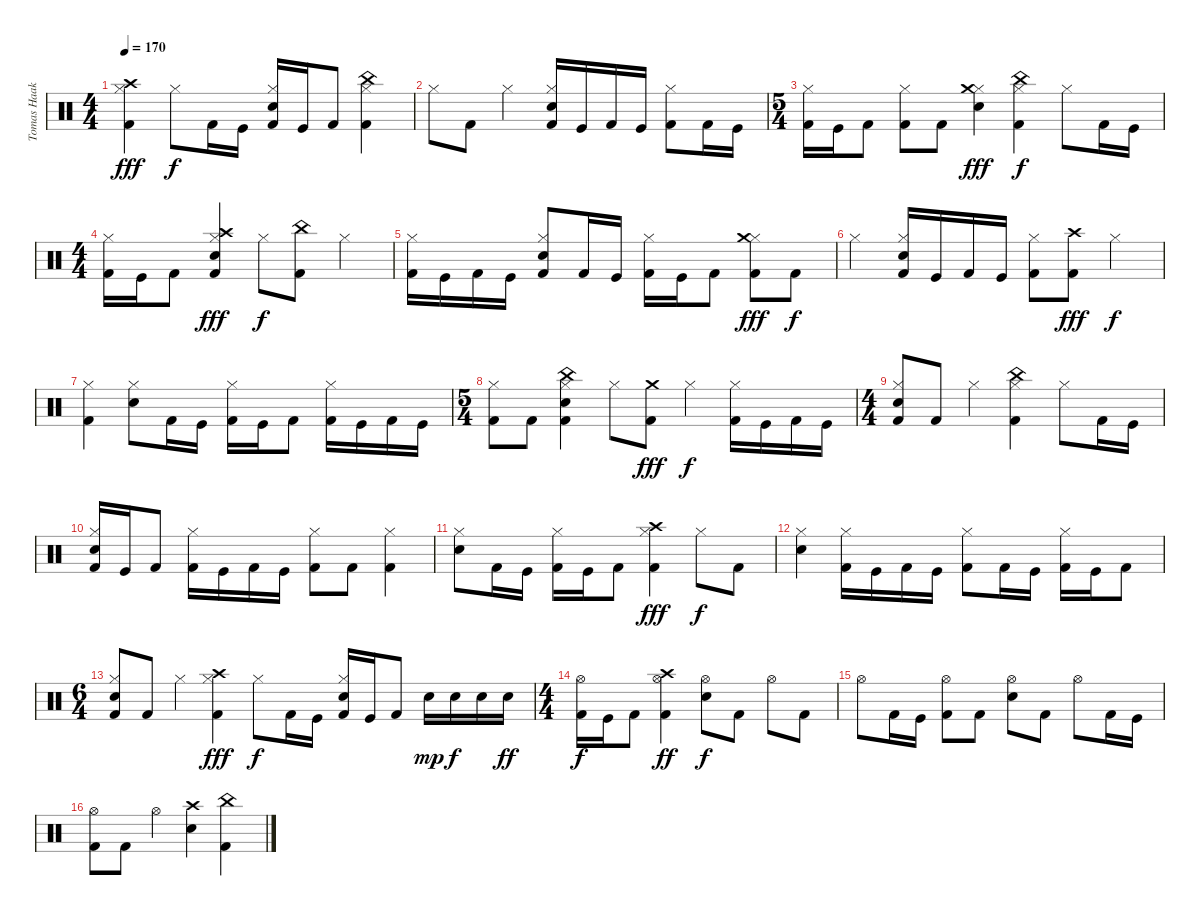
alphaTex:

\track ("Tomas Haake" "Tomas Haak") {instrument percussion}
\staff {score}
\articulation defaults
\ts (4 4)
\tempo 170
\clef neutral
\ks c
("Kick (hit) 2" "Hi-Hat (closed)" "Crash high (hit)").4{dy fff} "Hi-Hat (closed)".8{dy f} "Kick (hit) 2".16 "Kick (hit)".16 ("Kick (hit) 2" "Snare (hit) 2" "Hi-Hat (closed)").16 "Kick (hit)".16 "Kick (hit) 2".8 ("Kick (hit) 2" "Hi-Hat (closed)" "China (hit)").4 |
"Hi-Hat (closed)".8 "Kick (hit) 2".8 "Hi-Hat (closed)".4 ("Kick (hit) 2" "Snare (hit) 2" "Hi-Hat (closed)").16 "Kick (hit)".16 "Kick (hit) 2".16 "Kick (hit)".16 ("Kick (hit) 2" "Hi-Hat (closed)").8 "Kick (hit) 2".16 "Kick (hit)".16 |
\ts (5 4)
("Kick (hit) 2" "Hi-Hat (closed)").16 "Kick (hit)".16 "Kick (hit) 2".8 ("Kick (hit) 2" "Hi-Hat (closed)").8 "Kick (hit) 2".8 ("Snare (hit) 2" "Hi-Hat (closed)" "Crash medium (hit)").4{dy fff} ("Kick (hit) 2" "Hi-Hat (closed)" "China (hit)").4{dy f} "Hi-Hat (closed)".8 "Kick (hit) 2".16 "Kick (hit)".16 |
\ts (4 4)
("Kick (hit) 2" "Hi-Hat (closed)").16 "Kick (hit)".16 "Kick (hit) 2".8 ("Kick (hit) 2" "Snare (hit) 2" "Hi-Hat (closed)" "Crash high (hit)").4{dy fff} "Hi-Hat (closed)".8{dy f} ("Kick (hit) 2" "China (hit)").8 "Hi-Hat (closed)".4 |
("Kick (hit) 2" "Hi-Hat (closed)").16 "Kick (hit)".16 "Kick (hit) 2".16 "Kick (hit)".16 ("Kick (hit) 2" "Snare (hit) 2" "Hi-Hat (closed)").8 "Kick (hit) 2".16 "Kick (hit)".16 ("Kick (hit) 2" "Hi-Hat (closed)").16 "Kick (hit)".16 "Kick (hit) 2".8 ("Kick (hit) 2" "Hi-Hat (closed)" "Crash medium (hit)").8{dy fff} "Kick (hit) 2".8{dy f} |
"Hi-Hat (closed)".4 ("Kick (hit) 2" "Snare (hit) 2" "Hi-Hat (closed)").16 "Kick (hit)".16 "Kick (hit) 2".16 "Kick (hit)".16 ("Kick (hit) 2" "Hi-Hat (closed)").8 ("Kick (hit) 2" "Crash high (hit)").8{dy fff} "Hi-Hat (closed)".4{dy f} |
("Kick (hit) 2" "Hi-Hat (closed)").4 ("Snare (hit) 2" "Hi-Hat (closed)").8 "Kick (hit) 2".16 "Kick (hit)".16 ("Kick (hit) 2" "Hi-Hat (closed)").16 "Kick (hit)".16 "Kick (hit) 2".8 ("Kick (hit) 2" "Hi-Hat (closed)").16 "Kick (hit)".16 "Kick (hit) 2".16 "Kick (hit)".16 |
\ts (5 4)
("Kick (hit) 2" "Hi-Hat (closed)").8 "Kick (hit) 2".8 ("Kick (hit) 2" "Snare (hit) 2" "Hi-Hat (closed)" "China (hit)").4 "Hi-Hat (closed)".8 ("Kick (hit) 2" "Crash medium (hit)").8{dy fff} "Hi-Hat (closed)".4{dy f} ("Kick (hit) 2" "Hi-Hat (closed)").16 "Kick (hit)".16 "Kick (hit) 2".16 "Kick (hit)".16 |
\ts (4 4)
("Kick (hit) 2" "Snare (hit) 2" "Hi-Hat (closed)").8 "Kick (hit) 2".8 "Hi-Hat (closed)".4 ("Kick (hit) 2" "Hi-Hat (closed)" "China (hit)").4 "Hi-Hat (closed)".8 "Kick (hit) 2".16 "Kick (hit)".16 |
("Kick (hit) 2" "Snare (hit) 2" "Hi-Hat (closed)").16 "Kick (hit)".16 "Kick (hit) 2".8 ("Kick (hit) 2" "Hi-Hat (closed)").16 "Kick (hit)".16 "Kick (hit) 2".16 "Kick (hit)".16 ("Kick (hit) 2" "Hi-Hat (closed)").8 "Kick (hit) 2".8 ("Kick (hit) 2" "Hi-Hat (closed)").4 |
("Snare (hit) 2" "Hi-Hat (closed)").8 "Kick (hit) 2".16 "Kick (hit)".16 ("Kick (hit) 2" "Hi-Hat (closed)").16 "Kick (hit)".16 "Kick (hit) 2".8 ("Kick (hit) 2" "Hi-Hat (closed)" "Crash high (hit)").4{dy fff} "Hi-Hat (closed)".8{dy f} "Kick (hit) 2".8 |
("Snare (hit) 2" "Hi-Hat (closed)").4 ("Kick (hit) 2" "Hi-Hat (closed)").16 "Kick (hit)".16 "Kick (hit) 2".16 "Kick (hit)".16 ("Kick (hit) 2" "Hi-Hat (closed)").8 "Kick (hit) 2".16 "Kick (hit)".16 ("Kick (hit) 2" "Hi-Hat (closed)").16 "Kick (hit)".16 "Kick (hit) 2".8 |
\ts (6 4)
("Kick (hit) 2" "Snare (hit) 2" "Hi-Hat (closed)").8 "Kick (hit) 2".8 "Hi-Hat (closed)".4 ("Kick (hit) 2" "Hi-Hat (closed)" "Crash high (hit)").4{dy fff} "Hi-Hat (closed)".8{dy f} "Kick (hit) 2".16 "Kick (hit)".16 ("Kick (hit) 2" "Snare (hit) 2" "Hi-Hat (closed)").16 "Kick (hit)".16 "Kick (hit) 2".8 "Snare (hit) 2".16{dy mp} "Snare (hit) 2".16{dy f} "Snare (hit) 2".16 "Snare (hit) 2".16{dy ff} |
\ts (4 4)
("Kick (hit) 2" "Hi-Hat (open)").16{dy f} "Kick (hit)".16 "Kick (hit) 2".8 ("Kick (hit) 2" "Hi-Hat (open)" "Crash high (hit)").4{dy ff} ("Snare (hit) 2" "Hi-Hat (open)").8{dy f} "Kick (hit) 2".8 "Hi-Hat (open)".8 "Kick (hit) 2".8 |
"Hi-Hat (open)".8 "Kick (hit) 2".16 "Kick (hit)".16 ("Kick (hit) 2" "Hi-Hat (open)").8 "Kick (hit) 2".8 ("Snare (hit) 2" "Hi-Hat (open)").8 "Kick (hit) 2".8 "Hi-Hat (open)".8 "Kick (hit) 2".16 "Kick (hit)".16 |
("Kick (hit) 2" "Hi-Hat (open)").8 "Kick (hit) 2".8 "Hi-Hat (open)".4 ("Snare (hit) 2" "Crash high (hit)").4 ("Kick (hit) 2" "China (hit)").4
